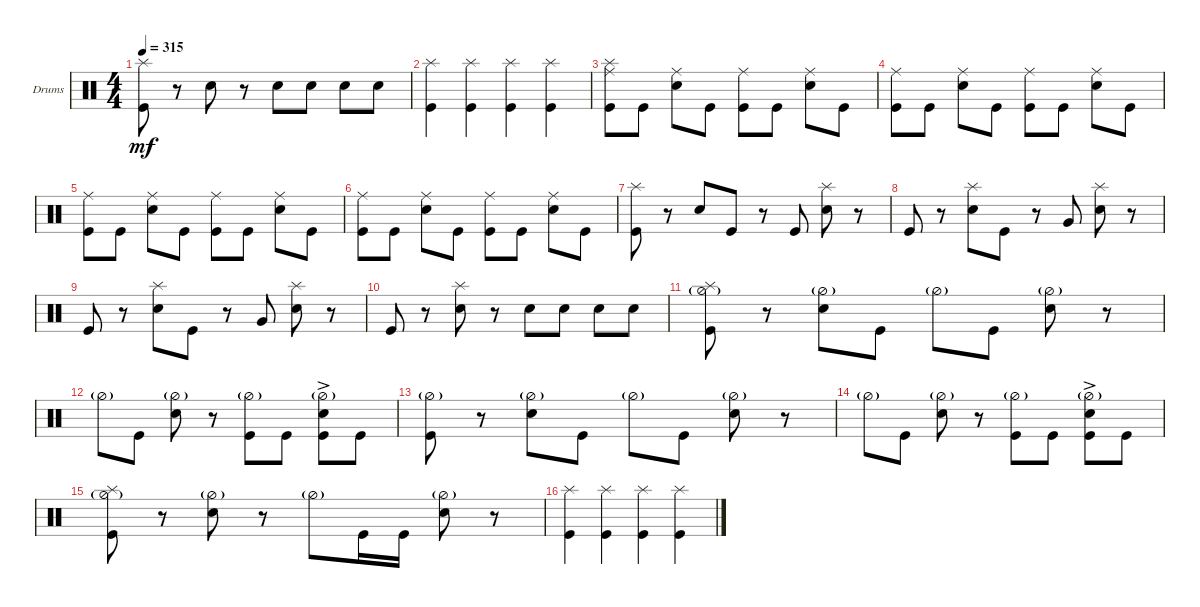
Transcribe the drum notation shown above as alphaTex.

\bracketExtendMode groupsimilarinstruments
\firstSystemTrackNameOrientation horizontal
\otherSystemsTrackNameOrientation horizontal
\track ("Drumkit" "Drums") {instrument percussion}
\staff {score}
\articulation defaults
\ts (4 4)
\tempo 315
\clef neutral
\ks c
("Kick (hit)" "Splash (hit)").8{dy mf} r.8 "Snare (hit) 2".8 r.8 "Snare (hit) 2".8 "Snare (hit) 2".8 "Snare (hit) 2".8 "Snare (hit) 2".8 |
("Kick (hit)" "Splash (hit)").4 ("Kick (hit)" "Splash (hit)").4 ("Kick (hit)" "Splash (hit)").4 ("Kick (hit)" "Splash (hit)").4 |
("Kick (hit)" "Splash (hit)" "Ride (middle)").8 "Kick (hit)".8 ("Snare (hit) 2" "Ride (middle)").8 "Kick (hit)".8 ("Kick (hit)" "Ride (middle)").8 "Kick (hit)".8 ("Snare (hit) 2" "Ride (middle)").8 "Kick (hit)".8 |
("Kick (hit)" "Ride (middle)").8 "Kick (hit)".8 ("Snare (hit) 2" "Ride (middle)").8 "Kick (hit)".8 ("Kick (hit)" "Ride (middle)").8 "Kick (hit)".8 ("Snare (hit) 2" "Ride (middle)").8 "Kick (hit)".8 |
("Kick (hit)" "Ride (middle)").8 "Kick (hit)".8 ("Snare (hit) 2" "Ride (middle)").8 "Kick (hit)".8 ("Kick (hit)" "Ride (middle)").8 "Kick (hit)".8 ("Snare (hit) 2" "Ride (middle)").8 "Kick (hit)".8 |
("Kick (hit)" "Ride (middle)").8 "Kick (hit)".8 ("Snare (hit) 2" "Ride (middle)").8 "Kick (hit)".8 ("Kick (hit)" "Ride (middle)").8 "Kick (hit)".8 ("Snare (hit) 2" "Ride (middle)").8 "Kick (hit)".8 |
("Kick (hit)" "Splash (hit)").8 r.8 "Snare (hit) 2".8 "Kick (hit)".8 r.8 "Kick (hit)".8 ("Snare (hit) 2" "Splash (hit)").8 r.8 |
"Kick (hit)".8 r.8 ("Snare (hit) 2" "Splash (hit)").8 "Kick (hit)".8 r.8 "Very Low Tom (hit)".8 ("Snare (hit) 2" "Splash (hit)").8 r.8 |
"Kick (hit)".8 r.8 ("Snare (hit) 2" "Splash (hit)").8 "Kick (hit)".8 r.8 "Very Low Tom (hit)".8 ("Snare (hit) 2" "Splash (hit)").8 r.8 |
"Kick (hit)".8 r.8 ("Snare (hit) 2" "Splash (hit)").8 r.8 "Snare (hit) 2".8 "Snare (hit) 2".8 "Snare (hit) 2".8 "Snare (hit) 2".8 |
("Kick (hit)" "Hi-Hat (half)"{g} "Splash (hit)").8 r.8 ("Snare (hit) 2" "Hi-Hat (half)"{g}).8 "Kick (hit)".8 "Hi-Hat (half)"{g}.8 "Kick (hit)".8 ("Snare (hit) 2" "Hi-Hat (half)"{g}).8 r.8 |
"Hi-Hat (half)"{g}.8 "Kick (hit)".8 ("Snare (hit) 2" "Hi-Hat (half)"{g}).8 r.8 ("Kick (hit)" "Hi-Hat (half)"{g}).8 "Kick (hit)".8 ("Snare (hit) 2"{ac} "Kick (hit)" "Hi-Hat (half)"{g}).8 "Kick (hit)".8 |
("Kick (hit)" "Hi-Hat (half)"{g}).8 r.8 ("Snare (hit) 2" "Hi-Hat (half)"{g}).8 "Kick (hit)".8 "Hi-Hat (half)"{g}.8 "Kick (hit)".8 ("Snare (hit) 2" "Hi-Hat (half)"{g}).8 r.8 |
"Hi-Hat (half)"{g}.8 "Kick (hit)".8 ("Snare (hit) 2" "Hi-Hat (half)"{g}).8 r.8 ("Kick (hit)" "Hi-Hat (half)"{g}).8 "Kick (hit)".8 ("Snare (hit) 2"{ac} "Kick (hit)" "Hi-Hat (half)"{g}).8 "Kick (hit)".8 |
("Kick (hit)" "Splash (hit)" "Hi-Hat (half)"{g}).8 r.8 ("Snare (hit) 2" "Hi-Hat (half)"{g}).8 r.8 "Hi-Hat (half)"{g}.8 "Kick (hit)".16 "Kick (hit)".16 ("Snare (hit) 2" "Hi-Hat (half)"{g}).8 r.8 |
("Kick (hit)" "Splash (hit)").4 ("Kick (hit)" "Splash (hit)").4 ("Kick (hit)" "Splash (hit)").4 ("Kick (hit)" "Splash (hit)").4
